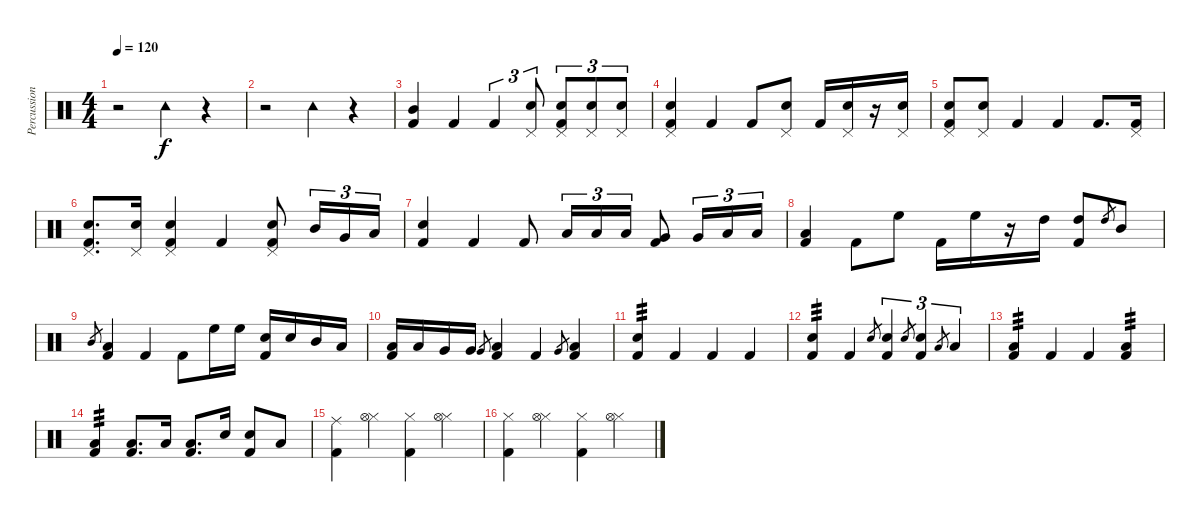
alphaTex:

\track ("Percussion" "Percussion") {instrument percussion}
\staff {score}
\articulation defaults
\ts (4 4)
\tempo 120
\clef neutral
\ks c
r.2{dy f} "Tambourine (hit)".4 r.4 |
r.2 "Tambourine (hit)".4 r.4 |
("Kick (hit) 2" "Mid Tom (hit)").4 "Kick (hit) 2".4 "Kick (hit) 2".4{tu (3 2)} ("Snare (hit) 2" "Pedal Hi-Hat (hit)").8{tu (3 2)} ("Kick (hit) 2" "Snare (hit) 2" "Pedal Hi-Hat (hit)").8{tu (3 2)} ("Snare (hit) 2" "Pedal Hi-Hat (hit)").8{tu (3 2)} ("Snare (hit) 2" "Pedal Hi-Hat (hit)").8{tu (3 2)} |
("Kick (hit) 2" "Snare (hit) 2" "Pedal Hi-Hat (hit)").4 "Kick (hit) 2".4 "Kick (hit) 2".8 ("Snare (hit) 2" "Pedal Hi-Hat (hit)").8 "Kick (hit) 2".16 ("Snare (hit) 2" "Pedal Hi-Hat (hit)").16 r.16 ("Snare (hit) 2" "Pedal Hi-Hat (hit)").16 |
("Kick (hit) 2" "Snare (hit) 2" "Pedal Hi-Hat (hit)").8 ("Snare (hit) 2" "Pedal Hi-Hat (hit)").8 "Kick (hit) 2".4 "Kick (hit) 2".4 "Kick (hit) 2".8{d} ("Kick (hit) 2" "Pedal Hi-Hat (hit)").16 |
("Kick (hit) 2" "Snare (hit) 2" "Pedal Hi-Hat (hit)").8{d} ("Snare (hit) 2" "Pedal Hi-Hat (hit)").16 ("Kick (hit) 2" "Snare (hit) 2" "Pedal Hi-Hat (hit)").4 "Kick (hit) 2".4 ("Kick (hit) 2" "Snare (hit) 2" "Pedal Hi-Hat (hit)").8 "Mid Tom (hit)".16{tu (3 2)} "Very Low Tom (hit)".16{tu (3 2)} "Low Floor Tom (hit)".16{tu (3 2)} |
("Kick (hit) 2" "Snare (hit) 2").4 "Kick (hit) 2".4 "Kick (hit) 2".8 "Low Tom (hit)".16{tu (3 2)} "Low Tom (hit)".16{tu (3 2)} "Low Tom (hit)".16{tu (3 2)} ("Kick (hit) 2" "Very Low Tom (hit)").8 "Very Low Tom (hit)".16{tu (3 2)} "Low Floor Tom (hit)".16{tu (3 2)} "Low Floor Tom (hit)".16{tu (3 2)} |
("Kick (hit) 2" "Low Floor Tom (hit)").4 "Kick (hit) 2".8 "High Floor Tom (hit)".8 "Kick (hit) 2".16 "High Floor Tom (hit)".16 r.16 "High Tom (hit)".16 ("Kick (hit) 2" "High Tom (hit)").8 "High Tom (hit)".8{gr} "Mid Tom (hit)".8 |
"Mid Tom (hit)".8{gr} ("Kick (hit) 2" "Low Tom (hit)").4 "Kick (hit) 2".4 "Kick (hit) 2".8 "High Floor Tom (hit)".16 "High Floor Tom (hit)".16 ("Kick (hit) 2" "Snare (hit) 2").16 "Snare (hit) 2".16 "Mid Tom (hit)".16 "Low Tom (hit)".16 |
("Kick (hit) 2" "Low Tom (hit)").16 "Low Tom (hit)".16 "Very Low Tom (hit)".16 "Very Low Tom (hit)".16 "Very Low Tom (hit)".8{gr} ("Kick (hit) 2" "Low Floor Tom (hit)").4 "Kick (hit) 2".4 "Very Low Tom (hit)".8{gr} ("Kick (hit) 2" "Low Floor Tom (hit)").4 |
("Kick (hit) 2" "Snare (hit) 2").4{tp 3} "Kick (hit) 2".4 "Kick (hit) 2".4 "Kick (hit) 2".4 |
("Kick (hit) 2" "Snare (hit) 2").4{tp 3} "Kick (hit) 2".4 "Snare (hit) 2".8{gr} ("Kick (hit) 2" "Snare (hit) 2").4{tu (3 2)} "Snare (hit) 2".8{gr} ("Kick (hit) 2" "Snare (hit) 2").4{tu (3 2)} "Low Floor Tom (hit)".8{gr} "Low Floor Tom (hit)".4{tu (3 2)} |
("Kick (hit) 2" "Low Tom (hit)").4{tp 3} "Kick (hit) 2".4 "Kick (hit) 2".4 ("Kick (hit) 2" "Low Tom (hit)").4{tp 3} |
("Kick (hit) 2" "Low Tom (hit)").4{tp 3} ("Kick (hit) 2" "Low Tom (hit)").8{d} "Low Tom (hit)".16 ("Kick (hit) 2" "Low Tom (hit)").8{d} "Snare (hit) 2".16 ("Kick (hit) 2" "Snare (hit) 2").8 "Low Floor Tom (hit)".8 |
("Kick (hit) 2" "Ride (middle)").4 ("Hi-Hat (closed)" "Hi-Hat (open)").4 ("Kick (hit) 2" "Hi-Hat (closed)").4 ("Hi-Hat (closed)" "Hi-Hat (open)").4 |
("Kick (hit) 2" "Hi-Hat (closed)").4 ("Hi-Hat (closed)" "Hi-Hat (open)").4 ("Kick (hit) 2" "Hi-Hat (closed)").4 ("Hi-Hat (closed)" "Hi-Hat (open)").4
